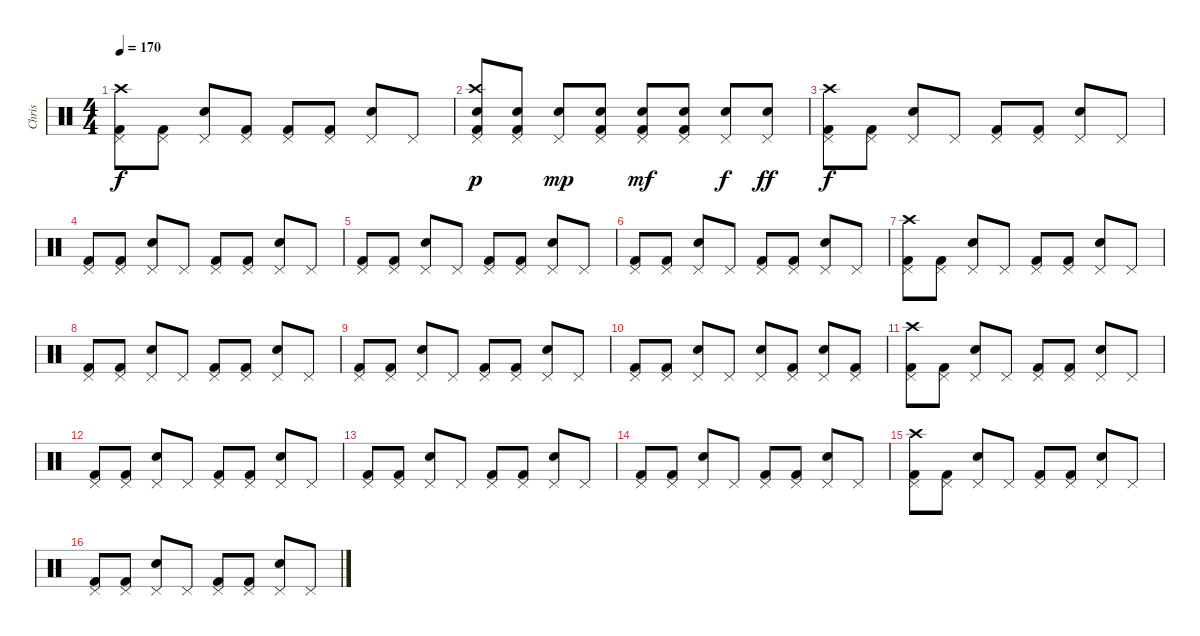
\track ("Chris" "Chris") {instrument percussion}
\staff {score}
\articulation defaults
\ts (4 4)
\tempo 170
\clef neutral
\ks c
("Pedal Hi-Hat (hit)" "Kick (hit) 2" "Crash high (hit)").8{dy f} ("Pedal Hi-Hat (hit)" "Kick (hit) 2").8 ("Pedal Hi-Hat (hit)" "Electric Snare (hit)").8 ("Pedal Hi-Hat (hit)" "Kick (hit) 2").8 ("Pedal Hi-Hat (hit)" "Kick (hit) 2").8 ("Pedal Hi-Hat (hit)" "Kick (hit) 2").8 ("Pedal Hi-Hat (hit)" "Electric Snare (hit)").8 "Pedal Hi-Hat (hit)".8 |
("Pedal Hi-Hat (hit)" "Electric Snare (hit)" "Kick (hit) 2" "Crash high (hit)").8{dy p} ("Pedal Hi-Hat (hit)" "Electric Snare (hit)" "Kick (hit) 2").8 ("Pedal Hi-Hat (hit)" "Electric Snare (hit)").8{dy mp} ("Pedal Hi-Hat (hit)" "Electric Snare (hit)" "Kick (hit) 2").8 ("Pedal Hi-Hat (hit)" "Electric Snare (hit)" "Kick (hit) 2").8{dy mf} ("Pedal Hi-Hat (hit)" "Electric Snare (hit)" "Kick (hit) 2").8 ("Pedal Hi-Hat (hit)" "Electric Snare (hit)").8{dy f} ("Pedal Hi-Hat (hit)" "Electric Snare (hit)").8{dy ff} |
("Pedal Hi-Hat (hit)" "Kick (hit) 2" "Crash high (hit)").8{dy f} ("Pedal Hi-Hat (hit)" "Kick (hit) 2").8 ("Pedal Hi-Hat (hit)" "Electric Snare (hit)").8 "Pedal Hi-Hat (hit)".8 ("Pedal Hi-Hat (hit)" "Kick (hit) 2").8 ("Pedal Hi-Hat (hit)" "Kick (hit) 2").8 ("Pedal Hi-Hat (hit)" "Electric Snare (hit)").8 "Pedal Hi-Hat (hit)".8 |
("Pedal Hi-Hat (hit)" "Kick (hit) 2").8 ("Pedal Hi-Hat (hit)" "Kick (hit) 2").8 ("Pedal Hi-Hat (hit)" "Electric Snare (hit)").8 "Pedal Hi-Hat (hit)".8 ("Pedal Hi-Hat (hit)" "Kick (hit) 2").8 ("Pedal Hi-Hat (hit)" "Kick (hit) 2").8 ("Pedal Hi-Hat (hit)" "Electric Snare (hit)").8 "Pedal Hi-Hat (hit)".8 |
("Pedal Hi-Hat (hit)" "Kick (hit) 2").8 ("Pedal Hi-Hat (hit)" "Kick (hit) 2").8 ("Pedal Hi-Hat (hit)" "Electric Snare (hit)").8 "Pedal Hi-Hat (hit)".8 ("Pedal Hi-Hat (hit)" "Kick (hit) 2").8 ("Pedal Hi-Hat (hit)" "Kick (hit) 2").8 ("Pedal Hi-Hat (hit)" "Electric Snare (hit)").8 "Pedal Hi-Hat (hit)".8 |
("Pedal Hi-Hat (hit)" "Kick (hit) 2").8 ("Pedal Hi-Hat (hit)" "Kick (hit) 2").8 ("Pedal Hi-Hat (hit)" "Electric Snare (hit)").8 "Pedal Hi-Hat (hit)".8 ("Pedal Hi-Hat (hit)" "Kick (hit) 2").8 ("Pedal Hi-Hat (hit)" "Kick (hit) 2").8 ("Pedal Hi-Hat (hit)" "Electric Snare (hit)").8 "Pedal Hi-Hat (hit)".8 |
("Pedal Hi-Hat (hit)" "Kick (hit) 2" "Crash high (hit)").8 ("Pedal Hi-Hat (hit)" "Kick (hit) 2").8 ("Pedal Hi-Hat (hit)" "Electric Snare (hit)").8 "Pedal Hi-Hat (hit)".8 ("Pedal Hi-Hat (hit)" "Kick (hit) 2").8 ("Pedal Hi-Hat (hit)" "Kick (hit) 2").8 ("Pedal Hi-Hat (hit)" "Electric Snare (hit)").8 "Pedal Hi-Hat (hit)".8 |
("Pedal Hi-Hat (hit)" "Kick (hit) 2").8 ("Pedal Hi-Hat (hit)" "Kick (hit) 2").8 ("Pedal Hi-Hat (hit)" "Electric Snare (hit)").8 "Pedal Hi-Hat (hit)".8 ("Pedal Hi-Hat (hit)" "Kick (hit) 2").8 ("Pedal Hi-Hat (hit)" "Kick (hit) 2").8 ("Pedal Hi-Hat (hit)" "Electric Snare (hit)").8 "Pedal Hi-Hat (hit)".8 |
("Pedal Hi-Hat (hit)" "Kick (hit) 2").8 ("Pedal Hi-Hat (hit)" "Kick (hit) 2").8 ("Pedal Hi-Hat (hit)" "Electric Snare (hit)").8 "Pedal Hi-Hat (hit)".8 ("Pedal Hi-Hat (hit)" "Kick (hit) 2").8 ("Pedal Hi-Hat (hit)" "Kick (hit) 2").8 ("Pedal Hi-Hat (hit)" "Electric Snare (hit)").8 "Pedal Hi-Hat (hit)".8 |
("Pedal Hi-Hat (hit)" "Kick (hit) 2").8 ("Pedal Hi-Hat (hit)" "Kick (hit) 2").8 ("Pedal Hi-Hat (hit)" "Electric Snare (hit)").8 "Pedal Hi-Hat (hit)".8 ("Pedal Hi-Hat (hit)" "Electric Snare (hit)").8 ("Pedal Hi-Hat (hit)" "Kick (hit) 2").8 ("Pedal Hi-Hat (hit)" "Electric Snare (hit)").8 ("Pedal Hi-Hat (hit)" "Kick (hit) 2").8 |
("Pedal Hi-Hat (hit)" "Kick (hit) 2" "Crash high (hit)").8 ("Pedal Hi-Hat (hit)" "Kick (hit) 2").8 ("Pedal Hi-Hat (hit)" "Electric Snare (hit)").8 "Pedal Hi-Hat (hit)".8 ("Pedal Hi-Hat (hit)" "Kick (hit) 2").8 ("Pedal Hi-Hat (hit)" "Kick (hit) 2").8 ("Pedal Hi-Hat (hit)" "Electric Snare (hit)").8 "Pedal Hi-Hat (hit)".8 |
("Pedal Hi-Hat (hit)" "Kick (hit) 2").8 ("Pedal Hi-Hat (hit)" "Kick (hit) 2").8 ("Pedal Hi-Hat (hit)" "Electric Snare (hit)").8 "Pedal Hi-Hat (hit)".8 ("Pedal Hi-Hat (hit)" "Kick (hit) 2").8 ("Pedal Hi-Hat (hit)" "Kick (hit) 2").8 ("Pedal Hi-Hat (hit)" "Electric Snare (hit)").8 "Pedal Hi-Hat (hit)".8 |
("Pedal Hi-Hat (hit)" "Kick (hit) 2").8 ("Pedal Hi-Hat (hit)" "Kick (hit) 2").8 ("Pedal Hi-Hat (hit)" "Electric Snare (hit)").8 "Pedal Hi-Hat (hit)".8 ("Pedal Hi-Hat (hit)" "Kick (hit) 2").8 ("Pedal Hi-Hat (hit)" "Kick (hit) 2").8 ("Pedal Hi-Hat (hit)" "Electric Snare (hit)").8 "Pedal Hi-Hat (hit)".8 |
("Pedal Hi-Hat (hit)" "Kick (hit) 2").8 ("Pedal Hi-Hat (hit)" "Kick (hit) 2").8 ("Pedal Hi-Hat (hit)" "Electric Snare (hit)").8 "Pedal Hi-Hat (hit)".8 ("Pedal Hi-Hat (hit)" "Kick (hit) 2").8 ("Pedal Hi-Hat (hit)" "Kick (hit) 2").8 ("Pedal Hi-Hat (hit)" "Electric Snare (hit)").8 "Pedal Hi-Hat (hit)".8 |
("Pedal Hi-Hat (hit)" "Kick (hit) 2" "Crash high (hit)").8 ("Pedal Hi-Hat (hit)" "Kick (hit) 2").8 ("Pedal Hi-Hat (hit)" "Electric Snare (hit)").8 "Pedal Hi-Hat (hit)".8 ("Pedal Hi-Hat (hit)" "Kick (hit) 2").8 ("Pedal Hi-Hat (hit)" "Kick (hit) 2").8 ("Pedal Hi-Hat (hit)" "Electric Snare (hit)").8 "Pedal Hi-Hat (hit)".8 |
("Pedal Hi-Hat (hit)" "Kick (hit) 2").8 ("Pedal Hi-Hat (hit)" "Kick (hit) 2").8 ("Pedal Hi-Hat (hit)" "Electric Snare (hit)").8 "Pedal Hi-Hat (hit)".8 ("Pedal Hi-Hat (hit)" "Kick (hit) 2").8 ("Pedal Hi-Hat (hit)" "Kick (hit) 2").8 ("Pedal Hi-Hat (hit)" "Electric Snare (hit)").8 "Pedal Hi-Hat (hit)".8
